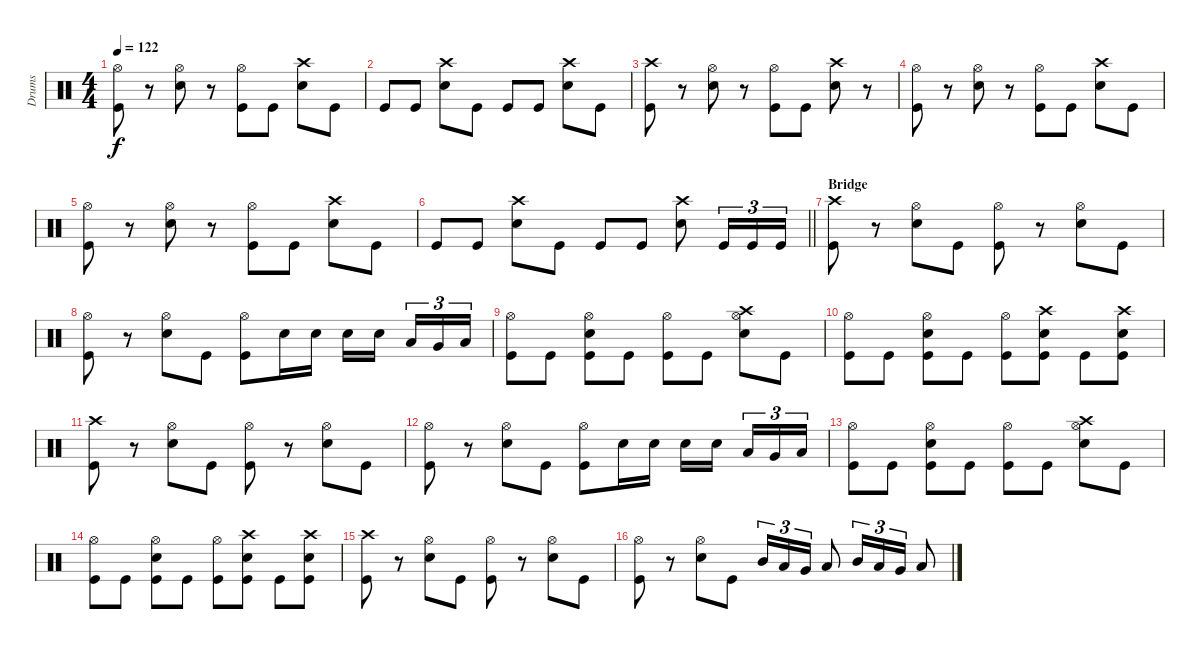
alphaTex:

\track ("Drums" "Drums") {instrument percussion}
\staff {score}
\articulation defaults
\ts (4 4)
\tempo 122
\clef neutral
\ks c
("Hi-Hat (open)" "Kick (hit)").8{dy f} r.8 ("Hi-Hat (open)" "Snare (hit) 2").8 r.8 ("Kick (hit)" "Hi-Hat (open)").8 "Kick (hit)".8 ("Snare (hit) 2" "Crash high (hit)").8 "Kick (hit)".8 |
"Kick (hit)".8 "Kick (hit)".8 ("Snare (hit) 2" "Crash high (hit)").8 "Kick (hit)".8 "Kick (hit)".8 "Kick (hit)".8 ("Snare (hit) 2" "Crash high (hit)").8 "Kick (hit)".8 |
("Crash high (hit)" "Kick (hit)").8 r.8 ("Hi-Hat (open)" "Snare (hit) 2").8 r.8 ("Kick (hit)" "Hi-Hat (open)").8 "Kick (hit)".8 ("Snare (hit) 2" "Crash high (hit)").8 r.8 |
("Hi-Hat (open)" "Kick (hit)").8 r.8 ("Hi-Hat (open)" "Snare (hit) 2").8 r.8 ("Kick (hit)" "Hi-Hat (open)").8 "Kick (hit)".8 ("Snare (hit) 2" "Crash high (hit)").8 "Kick (hit)".8 |
("Hi-Hat (open)" "Kick (hit)").8 r.8 ("Hi-Hat (open)" "Snare (hit) 2").8 r.8 ("Kick (hit)" "Hi-Hat (open)").8 "Kick (hit)".8 ("Snare (hit) 2" "Crash high (hit)").8 "Kick (hit)".8 |
\barLineRight lightlight "Kick (hit)".8 "Kick (hit)".8
("Snare (hit) 2" "Crash high (hit)").8 "Kick (hit)".8 "Kick (hit)".8 "Kick (hit)".8 ("Snare (hit) 2" "Crash high (hit)").8 "Kick (hit)".16{tu (3 2)} "Kick (hit)".16{tu (3 2)} "Kick (hit)".16{tu (3 2)} |
\section ("" "Bridge")
("Crash high (hit)" "Kick (hit)").8 r.8 ("Hi-Hat (open)" "Snare (hit) 2").8 "Kick (hit)".8 ("Kick (hit)" "Hi-Hat (open)").8 r.8 ("Hi-Hat (open)" "Snare (hit) 2").8 "Kick (hit)".8 |
("Kick (hit)" "Hi-Hat (open)").8 r.8 ("Hi-Hat (open)" "Snare (hit) 2").8 "Kick (hit)".8 ("Kick (hit)" "Hi-Hat (open)").8 "Snare (hit) 2".16 "Snare (hit) 2".16 "Snare (hit) 2".16 "Snare (hit) 2".16{beam splitsecondary} "Low Tom (hit)".16{tu (3 2)} "Very Low Tom (hit)".16{tu (3 2)} "Low Floor Tom (hit)".16{tu (3 2)} |
("Hi-Hat (open)" "Kick (hit)").8 "Kick (hit)".8 ("Kick (hit)" "Snare (hit) 2" "Hi-Hat (open)").8 "Kick (hit)".8 ("Kick (hit)" "Hi-Hat (open)").8 "Kick (hit)".8 ("Snare (hit) 2" "Hi-Hat (open)" "Crash high (hit)").8 "Kick (hit)".8 |
("Hi-Hat (open)" "Kick (hit)").8 "Kick (hit)".8 ("Kick (hit)" "Snare (hit) 2" "Hi-Hat (open)").8 "Kick (hit)".8 ("Kick (hit)" "Hi-Hat (open)").8 ("Kick (hit)" "Snare (hit) 2" "Crash high (hit)").8 "Kick (hit)".8 ("Kick (hit)" "Crash high (hit)" "Snare (hit) 2").8 |
("Crash high (hit)" "Kick (hit)").8 r.8 ("Hi-Hat (open)" "Snare (hit) 2").8 "Kick (hit)".8 ("Kick (hit)" "Hi-Hat (open)").8 r.8 ("Hi-Hat (open)" "Snare (hit) 2").8 "Kick (hit)".8 |
("Kick (hit)" "Hi-Hat (open)").8 r.8 ("Hi-Hat (open)" "Snare (hit) 2").8 "Kick (hit)".8 ("Kick (hit)" "Hi-Hat (open)").8 "Snare (hit) 2".16 "Snare (hit) 2".16 "Snare (hit) 2".16 "Snare (hit) 2".16{beam splitsecondary} "Low Tom (hit)".16{tu (3 2)} "Very Low Tom (hit)".16{tu (3 2)} "Low Floor Tom (hit)".16{tu (3 2)} |
("Hi-Hat (open)" "Kick (hit)").8 "Kick (hit)".8 ("Kick (hit)" "Snare (hit) 2" "Hi-Hat (open)").8 "Kick (hit)".8 ("Kick (hit)" "Hi-Hat (open)").8 "Kick (hit)".8 ("Snare (hit) 2" "Hi-Hat (open)" "Crash high (hit)").8 "Kick (hit)".8 |
("Hi-Hat (open)" "Kick (hit)").8 "Kick (hit)".8 ("Kick (hit)" "Snare (hit) 2" "Hi-Hat (open)").8 "Kick (hit)".8 ("Kick (hit)" "Hi-Hat (open)").8 ("Kick (hit)" "Snare (hit) 2" "Crash high (hit)").8 "Kick (hit)".8 ("Kick (hit)" "Crash high (hit)" "Snare (hit) 2").8 |
("Crash high (hit)" "Kick (hit)").8 r.8 ("Hi-Hat (open)" "Snare (hit) 2").8 "Kick (hit)".8 ("Kick (hit)" "Hi-Hat (open)").8 r.8 ("Hi-Hat (open)" "Snare (hit) 2").8 "Kick (hit)".8 |
("Kick (hit)" "Hi-Hat (open)").8 r.8 ("Hi-Hat (open)" "Snare (hit) 2").8 "Kick (hit)".8 "Mid Tom (hit)".16{tu (3 2)} "Low Tom (hit)".16{tu (3 2)} "Very Low Tom (hit)".16{tu (3 2)} "Low Floor Tom (hit)".8 "Mid Tom (hit)".16{tu (3 2)} "Low Tom (hit)".16{tu (3 2)} "Very Low Tom (hit)".16{tu (3 2)} "Low Floor Tom (hit)".8
